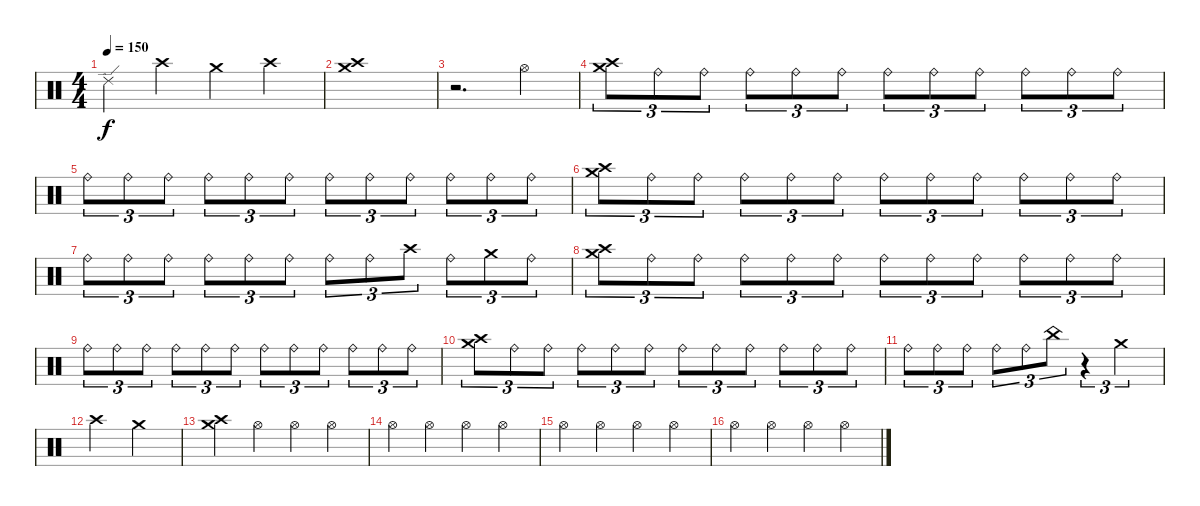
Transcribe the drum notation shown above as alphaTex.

\track "" {instrument percussion}
\staff {score}
\articulation defaults
\ts (4 4)
\tempo 150
\clef neutral
\ks c "Ride (edge) 2".4{dy f} "Crash high (hit)".4 "Crash medium (hit)".4 "Crash high (hit)".4
|
("Crash medium (hit)" "Crash high (hit)").1 |
r.2{d} "Hi-Hat (open)".4 |
("Crash medium (hit)" "Crash high (hit)").8{tu (3 2)} "Ride (bell)".8{tu (3 2)} "Ride (bell)".8{tu (3 2)} "Ride (bell)".8{tu (3 2)} "Ride (bell)".8{tu (3 2)} "Ride (bell)".8{tu (3 2)} "Ride (bell)".8{tu (3 2)} "Ride (bell)".8{tu (3 2)} "Ride (bell)".8{tu (3 2)} "Ride (bell)".8{tu (3 2)} "Ride (bell)".8{tu (3 2)} "Ride (bell)".8{tu (3 2)} |
"Ride (bell)".8{tu (3 2)} "Ride (bell)".8{tu (3 2)} "Ride (bell)".8{tu (3 2)} "Ride (bell)".8{tu (3 2)} "Ride (bell)".8{tu (3 2)} "Ride (bell)".8{tu (3 2)} "Ride (bell)".8{tu (3 2)} "Ride (bell)".8{tu (3 2)} "Ride (bell)".8{tu (3 2)} "Ride (bell)".8{tu (3 2)} "Ride (bell)".8{tu (3 2)} "Ride (bell)".8{tu (3 2)} |
("Crash medium (hit)" "Crash high (hit)").8{tu (3 2)} "Ride (bell)".8{tu (3 2)} "Ride (bell)".8{tu (3 2)} "Ride (bell)".8{tu (3 2)} "Ride (bell)".8{tu (3 2)} "Ride (bell)".8{tu (3 2)} "Ride (bell)".8{tu (3 2)} "Ride (bell)".8{tu (3 2)} "Ride (bell)".8{tu (3 2)} "Ride (bell)".8{tu (3 2)} "Ride (bell)".8{tu (3 2)} "Ride (bell)".8{tu (3 2)} |
"Ride (bell)".8{tu (3 2)} "Ride (bell)".8{tu (3 2)} "Ride (bell)".8{tu (3 2)} "Ride (bell)".8{tu (3 2)} "Ride (bell)".8{tu (3 2)} "Ride (bell)".8{tu (3 2)} "Ride (bell)".8{tu (3 2)} "Ride (bell)".8{tu (3 2)} "Crash high (hit)".8{tu (3 2)} "Ride (bell)".8{tu (3 2)} "Crash medium (hit)".8{tu (3 2)} "Ride (bell)".8{tu (3 2)} |
("Crash medium (hit)" "Crash high (hit)").8{tu (3 2)} "Ride (bell)".8{tu (3 2)} "Ride (bell)".8{tu (3 2)} "Ride (bell)".8{tu (3 2)} "Ride (bell)".8{tu (3 2)} "Ride (bell)".8{tu (3 2)} "Ride (bell)".8{tu (3 2)} "Ride (bell)".8{tu (3 2)} "Ride (bell)".8{tu (3 2)} "Ride (bell)".8{tu (3 2)} "Ride (bell)".8{tu (3 2)} "Ride (bell)".8{tu (3 2)} |
"Ride (bell)".8{tu (3 2)} "Ride (bell)".8{tu (3 2)} "Ride (bell)".8{tu (3 2)} "Ride (bell)".8{tu (3 2)} "Ride (bell)".8{tu (3 2)} "Ride (bell)".8{tu (3 2)} "Ride (bell)".8{tu (3 2)} "Ride (bell)".8{tu (3 2)} "Ride (bell)".8{tu (3 2)} "Ride (bell)".8{tu (3 2)} "Ride (bell)".8{tu (3 2)} "Ride (bell)".8{tu (3 2)} |
("Crash medium (hit)" "Crash high (hit)").8{tu (3 2)} "Ride (bell)".8{tu (3 2)} "Ride (bell)".8{tu (3 2)} "Ride (bell)".8{tu (3 2)} "Ride (bell)".8{tu (3 2)} "Ride (bell)".8{tu (3 2)} "Ride (bell)".8{tu (3 2)} "Ride (bell)".8{tu (3 2)} "Ride (bell)".8{tu (3 2)} "Ride (bell)".8{tu (3 2)} "Ride (bell)".8{tu (3 2)} "Ride (bell)".8{tu (3 2)} |
"Ride (bell)".8{tu (3 2)} "Ride (bell)".8{tu (3 2)} "Ride (bell)".8{tu (3 2)} "Ride (bell)".8{tu (3 2)} "Ride (bell)".8{tu (3 2)} "China (hit)".8{tu (3 2)} r.4{tu (3 2)} "Crash medium (hit)".2{tu (3 2)} |
"Crash high (hit)".2 "Crash medium (hit)".2 |
("Crash medium (hit)" "Crash high (hit)").4 "Hi-Hat (open)".4 "Hi-Hat (open)".4 "Hi-Hat (open)".4 |
"Hi-Hat (open)".4 "Hi-Hat (open)".4 "Hi-Hat (open)".4 "Hi-Hat (open)".4 |
"Hi-Hat (open)".4 "Hi-Hat (open)".4 "Hi-Hat (open)".4 "Hi-Hat (open)".4 |
"Hi-Hat (open)".4 "Hi-Hat (open)".4 "Hi-Hat (open)".4 "Hi-Hat (open)".4
